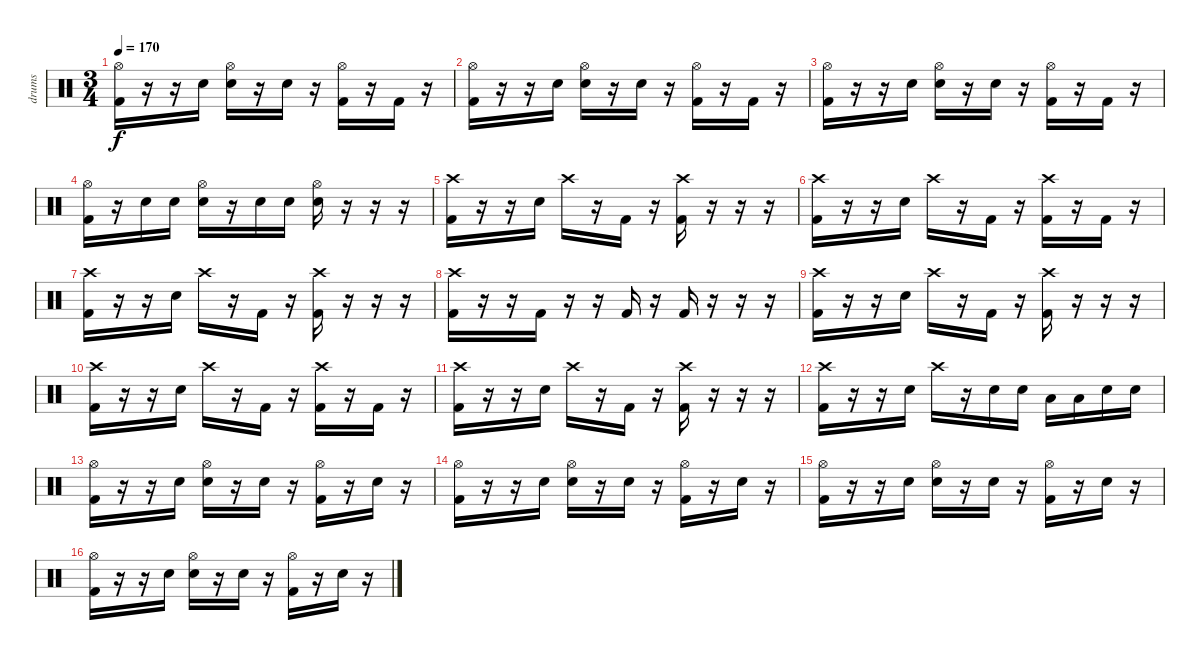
\track ("drums" "drums") {instrument percussion}
\staff {score}
\articulation defaults
\ts (3 4)
\tempo 170
\clef neutral
\ks c
("Kick (hit) 2" "Hi-Hat (open)").16{dy f} r.16 r.16 "Snare (hit) 2".16 ("Hi-Hat (open)" "Snare (hit) 2").16 r.16 "Snare (hit) 2".16 r.16 ("Hi-Hat (open)" "Kick (hit) 2").16 r.16 "Kick (hit) 2".16 r.16 |
("Kick (hit) 2" "Hi-Hat (open)").16 r.16 r.16 "Snare (hit) 2".16 ("Hi-Hat (open)" "Snare (hit) 2").16 r.16 "Snare (hit) 2".16 r.16 ("Hi-Hat (open)" "Kick (hit) 2").16 r.16 "Kick (hit) 2".16 r.16 |
("Kick (hit) 2" "Hi-Hat (open)").16 r.16 r.16 "Snare (hit) 2".16 ("Hi-Hat (open)" "Snare (hit) 2").16 r.16 "Snare (hit) 2".16 r.16 ("Hi-Hat (open)" "Kick (hit) 2").16 r.16 "Kick (hit) 2".16 r.16 |
("Hi-Hat (open)" "Kick (hit) 2").16 r.16 "Snare (hit) 2".16 "Snare (hit) 2".16 ("Hi-Hat (open)" "Snare (hit) 2").16 r.16 "Snare (hit) 2".16 "Snare (hit) 2".16 ("Snare (hit) 2" "Hi-Hat (open)").16 r.16 r.16 r.16 |
("Kick (hit) 2" "Crash high (hit)").16 r.16 r.16 "Snare (hit) 2".16 "Crash high (hit)".16 r.16 "Kick (hit) 2".16 r.16 ("Crash high (hit)" "Kick (hit) 2").16 r.16 r.16 r.16 |
("Kick (hit) 2" "Crash high (hit)").16 r.16 r.16 "Snare (hit) 2".16 "Crash high (hit)".16 r.16 "Kick (hit) 2".16 r.16 ("Crash high (hit)" "Kick (hit) 2").16 r.16 "Kick (hit) 2".16 r.16 |
("Kick (hit) 2" "Crash high (hit)").16 r.16 r.16 "Snare (hit) 2".16 "Crash high (hit)".16 r.16 "Kick (hit) 2".16 r.16 ("Crash high (hit)" "Kick (hit) 2").16 r.16 r.16 r.16 |
("Kick (hit) 2" "Crash high (hit)").16 r.16 r.16 "Kick (hit) 2".16 r.16 r.16 "Kick (hit) 2".16 r.16 "Kick (hit) 2".16 r.16 r.16 r.16 |
("Kick (hit) 2" "Crash high (hit)").16 r.16 r.16 "Snare (hit) 2".16 "Crash high (hit)".16 r.16 "Kick (hit) 2".16 r.16 ("Crash high (hit)" "Kick (hit) 2").16 r.16 r.16 r.16 |
("Kick (hit) 2" "Crash high (hit)").16 r.16 r.16 "Snare (hit) 2".16 "Crash high (hit)".16 r.16 "Kick (hit) 2".16 r.16 ("Crash high (hit)" "Kick (hit) 2").16 r.16 "Kick (hit) 2".16 r.16 |
("Kick (hit) 2" "Crash high (hit)").16 r.16 r.16 "Snare (hit) 2".16 "Crash high (hit)".16 r.16 "Kick (hit) 2".16 r.16 ("Crash high (hit)" "Kick (hit) 2").16 r.16 r.16 r.16 |
("Kick (hit) 2" "Crash high (hit)").16 r.16 r.16 "Snare (hit) 2".16 "Crash high (hit)".16 r.16 "Snare (hit) 2".16 "Snare (hit) 2".16 "Low Floor Tom (hit)".16 "Low Floor Tom (hit)".16 "Snare (hit) 2".16 "Snare (hit) 2".16 |
("Kick (hit) 2" "Hi-Hat (open)").16 r.16 r.16 "Snare (hit) 2".16 ("Hi-Hat (open)" "Snare (hit) 2").16 r.16 "Snare (hit) 2".16 r.16 ("Hi-Hat (open)" "Kick (hit) 2").16 r.16 "Snare (hit) 2".16 r.16 |
("Kick (hit) 2" "Hi-Hat (open)").16 r.16 r.16 "Snare (hit) 2".16 ("Hi-Hat (open)" "Snare (hit) 2").16 r.16 "Snare (hit) 2".16 r.16 ("Hi-Hat (open)" "Kick (hit) 2").16 r.16 "Snare (hit) 2".16 r.16 |
("Kick (hit) 2" "Hi-Hat (open)").16 r.16 r.16 "Snare (hit) 2".16 ("Hi-Hat (open)" "Snare (hit) 2").16 r.16 "Snare (hit) 2".16 r.16 ("Hi-Hat (open)" "Kick (hit) 2").16 r.16 "Snare (hit) 2".16 r.16 |
("Kick (hit) 2" "Hi-Hat (open)").16 r.16 r.16 "Snare (hit) 2".16 ("Hi-Hat (open)" "Snare (hit) 2").16 r.16 "Snare (hit) 2".16 r.16 ("Hi-Hat (open)" "Kick (hit) 2").16 r.16 "Snare (hit) 2".16 r.16
